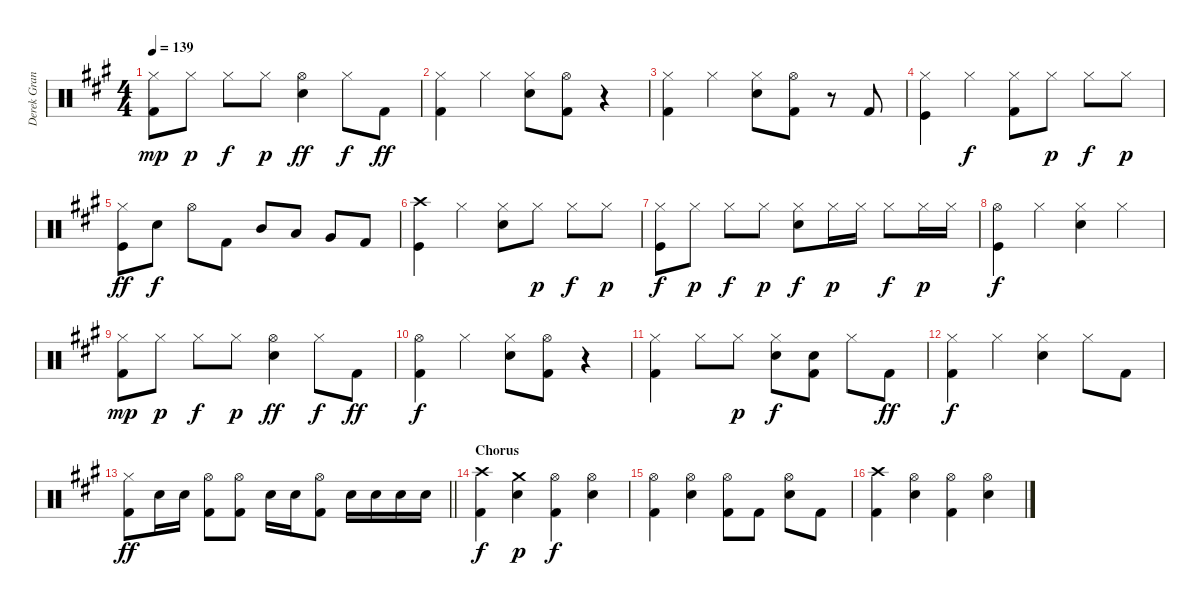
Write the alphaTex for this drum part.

\track ("Derek Grant - Drums" "Derek Gran") {instrument percussion}
\staff {score}
\articulation defaults
\ts (4 4)
\tempo 139
\clef neutral
\ks a
("Kick (hit) 2" "Hi-Hat (closed)").8{dy mp} "Hi-Hat (closed)".8{dy p} "Hi-Hat (closed)".8{dy f} "Hi-Hat (closed)".8{dy p} ("Snare (hit) 2" "Hi-Hat (open)").4{dy ff} "Hi-Hat (closed)".8{dy f} "Kick (hit) 2".8{dy ff} |
("Kick (hit) 2" "Hi-Hat (closed)").4 "Hi-Hat (closed)".4 ("Hi-Hat (closed)" "Snare (hit) 2").8 ("Hi-Hat (open)" "Kick (hit) 2").8 r.4 |
("Kick (hit) 2" "Hi-Hat (closed)").4 "Hi-Hat (closed)".4 ("Hi-Hat (closed)" "Snare (hit) 2").8 ("Hi-Hat (open)" "Kick (hit) 2").8 r.8 "Kick (hit) 2".8 |
("Kick (hit)" "Hi-Hat (closed)").4 "Hi-Hat (closed)".4{dy f} ("Kick (hit) 2" "Hi-Hat (closed)").8 "Hi-Hat (closed)".8{dy p} "Hi-Hat (closed)".8{dy f} "Hi-Hat (closed)".8{dy p} |
("Kick (hit)" "Hi-Hat (closed)").8{dy ff} "Snare (hit) 2".8{dy f} "Hi-Hat (open)".8 "Kick (hit) 2".8 "Mid Tom (hit)".8 "Low Tom (hit)".8 "Very Low Tom (hit)".8 "Kick (hit) 2".8 |
("Kick (hit)" "Crash high (hit)").4 "Hi-Hat (closed)".4 ("Snare (hit) 2" "Hi-Hat (closed)").8 "Hi-Hat (closed)".8{dy p} "Hi-Hat (closed)".8{dy f} "Hi-Hat (closed)".8{dy p} |
("Kick (hit)" "Hi-Hat (closed)").8{dy f} "Hi-Hat (closed)".8{dy p} "Hi-Hat (closed)".8{dy f} "Hi-Hat (closed)".8{dy p} ("Snare (hit) 2" "Hi-Hat (closed)").8{dy f} "Hi-Hat (closed)".16{dy p} "Hi-Hat (closed)".16 "Hi-Hat (closed)".8{dy f} "Hi-Hat (closed)".16{dy p} "Hi-Hat (closed)".16 |
("Kick (hit)" "Hi-Hat (open)").4{dy f} "Hi-Hat (closed)".4 ("Snare (hit) 2" "Hi-Hat (closed)").4 "Hi-Hat (closed)".4 |
("Kick (hit) 2" "Hi-Hat (closed)").8{dy mp} "Hi-Hat (closed)".8{dy p} "Hi-Hat (closed)".8{dy f} "Hi-Hat (closed)".8{dy p} ("Snare (hit) 2" "Hi-Hat (open)").4{dy ff} "Hi-Hat (closed)".8{dy f} "Kick (hit) 2".8{dy ff} |
("Kick (hit) 2" "Hi-Hat (open)").4{dy f} "Hi-Hat (closed)".4 ("Hi-Hat (closed)" "Snare (hit) 2").8 ("Hi-Hat (open)" "Kick (hit) 2").8 r.4 |
("Kick (hit) 2" "Hi-Hat (closed)").4 "Hi-Hat (closed)".8 "Hi-Hat (closed)".8{dy p} ("Hi-Hat (closed)" "Snare (hit) 2").8{dy f} ("Snare (hit) 2" "Kick (hit) 2").8 "Hi-Hat (closed)".8 "Kick (hit) 2".8{dy ff} |
("Kick (hit) 2" "Hi-Hat (closed)").4{dy f} "Hi-Hat (closed)".4 ("Snare (hit) 2" "Hi-Hat (closed)").4 "Hi-Hat (closed)".8 "Kick (hit) 2".8 |
\barLineRight lightlight
("Kick (hit) 2" "Hi-Hat (closed)").8{dy ff} "Snare (hit) 2".16 "Snare (hit) 2".16 ("Kick (hit) 2" "Hi-Hat (open)").8 ("Kick (hit) 2" "Hi-Hat (open)").8 "Snare (hit) 2".16 "Snare (hit) 2".16 ("Kick (hit) 2" "Hi-Hat (open)").8 "Snare (hit) 2".16 "Snare (hit) 2".16 "Snare (hit) 2".16 "Snare (hit) 2".16 |
\section ("" "Chorus")
("Crash high (hit)" "Kick (hit) 2").4{dy f} ("Snare (hit) 2" "Crash medium (hit)").4{dy p} ("Kick (hit) 2" "Hi-Hat (open)").4{dy f} ("Snare (hit) 2" "Hi-Hat (open)").4 |
("Kick (hit) 2" "Hi-Hat (open)").4 ("Snare (hit) 2" "Hi-Hat (open)").4 ("Kick (hit) 2" "Hi-Hat (open)").8 "Kick (hit) 2".8 ("Snare (hit) 2" "Hi-Hat (open)").8 "Kick (hit) 2".8 |
("Crash high (hit)" "Kick (hit) 2").4 ("Snare (hit) 2" "Hi-Hat (open)").4 ("Kick (hit) 2" "Hi-Hat (open)").4 ("Snare (hit) 2" "Hi-Hat (open)").4
